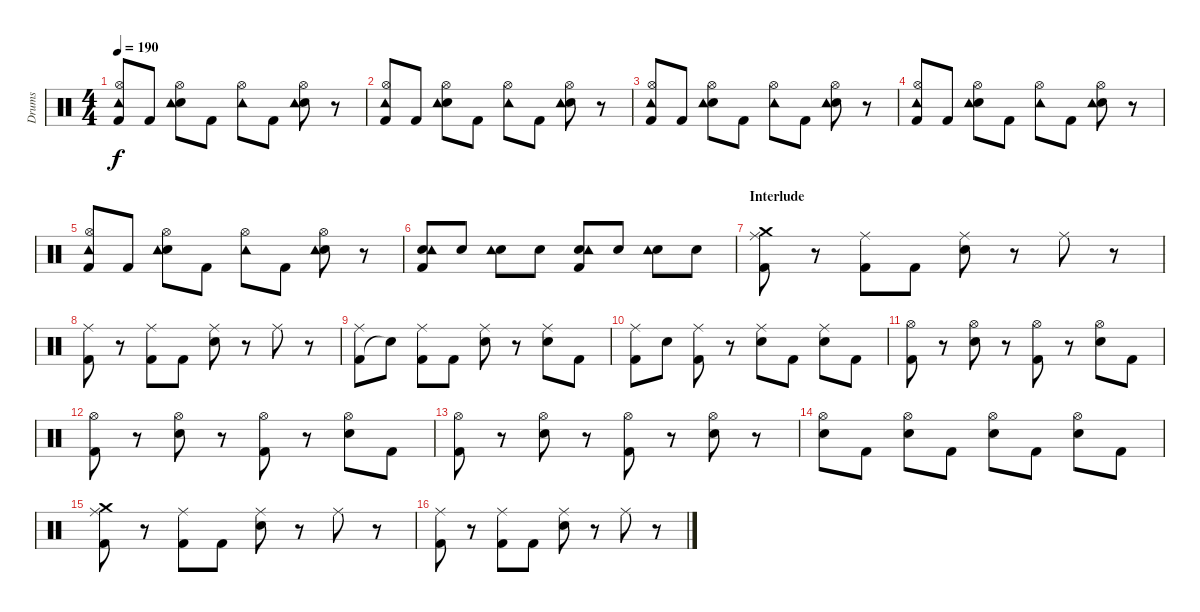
\track ("Drums" "Drums") {instrument percussion}
\staff {score}
\articulation defaults
\ts (4 4)
\tempo 190
\clef neutral
\ks c
("Kick (hit) 2" "Hi-Hat (open)" "Tambourine (hit)").8{dy f} "Kick (hit) 2".8 ("Electric Snare (hit)" "Hi-Hat (open)" "Tambourine (hit)").8 "Kick (hit) 2".8 ("Hi-Hat (open)" "Tambourine (hit)").8 "Kick (hit) 2".8 ("Electric Snare (hit)" "Hi-Hat (open)" "Tambourine (hit)").8 r.8 |
("Kick (hit) 2" "Hi-Hat (open)" "Tambourine (hit)").8 "Kick (hit) 2".8 ("Electric Snare (hit)" "Hi-Hat (open)" "Tambourine (hit)").8 "Kick (hit) 2".8 ("Hi-Hat (open)" "Tambourine (hit)").8 "Kick (hit) 2".8 ("Electric Snare (hit)" "Hi-Hat (open)" "Tambourine (hit)").8 r.8 |
("Kick (hit) 2" "Hi-Hat (open)" "Tambourine (hit)").8 "Kick (hit) 2".8 ("Electric Snare (hit)" "Hi-Hat (open)" "Tambourine (hit)").8 "Kick (hit) 2".8 ("Hi-Hat (open)" "Tambourine (hit)").8 "Kick (hit) 2".8 ("Electric Snare (hit)" "Hi-Hat (open)" "Tambourine (hit)").8 r.8 |
("Kick (hit) 2" "Hi-Hat (open)" "Tambourine (hit)").8 "Kick (hit) 2".8 ("Electric Snare (hit)" "Hi-Hat (open)" "Tambourine (hit)").8 "Kick (hit) 2".8 ("Hi-Hat (open)" "Tambourine (hit)").8 "Kick (hit) 2".8 ("Electric Snare (hit)" "Hi-Hat (open)" "Tambourine (hit)").8 r.8 |
("Kick (hit) 2" "Hi-Hat (open)" "Tambourine (hit)").8 "Kick (hit) 2".8 ("Electric Snare (hit)" "Hi-Hat (open)" "Tambourine (hit)").8 "Kick (hit) 2".8 ("Hi-Hat (open)" "Tambourine (hit)").8 "Kick (hit) 2".8 ("Electric Snare (hit)" "Hi-Hat (open)" "Tambourine (hit)").8 r.8 |
("Kick (hit) 2" "Electric Snare (hit)" "Tambourine (hit)").8 "Electric Snare (hit)".8 ("Electric Snare (hit)" "Tambourine (hit)").8 "Electric Snare (hit)".8 ("Kick (hit) 2" "Electric Snare (hit)" "Tambourine (hit)").8 "Electric Snare (hit)".8 ("Electric Snare (hit)" "Tambourine (hit)").8 "Electric Snare (hit)".8 |
\section ("" "Interlude")
("Kick (hit) 2" "Ride (middle)" "Crash medium (hit)").8 r.8 ("Kick (hit) 2" "Ride (middle)").8 "Kick (hit) 2".8 ("Electric Snare (hit)" "Ride (middle)").8 r.8 "Ride (middle)".8 r.8 |
("Kick (hit) 2" "Ride (middle)").8 r.8 ("Kick (hit) 2" "Ride (middle)").8 "Kick (hit) 2".8 ("Electric Snare (hit)" "Ride (middle)").8 r.8 "Ride (middle)".8 r.8 |
("Kick (hit) 2" "Ride (middle)").8 "Snare (hit)"{t}.8 ("Kick (hit) 2" "Ride (middle)").8 "Kick (hit) 2".8 ("Electric Snare (hit)" "Ride (middle)").8 r.8 ("Electric Snare (hit)" "Ride (middle)").8 "Kick (hit) 2".8 |
("Kick (hit) 2" "Ride (middle)").8 "Electric Snare (hit)".8 ("Kick (hit) 2" "Ride (middle)").8 r.8 ("Electric Snare (hit)" "Ride (middle)").8 "Kick (hit) 2".8 ("Electric Snare (hit)" "Ride (middle)").8 "Kick (hit) 2".8 |
("Kick (hit) 2" "Hi-Hat (open)").8 r.8 ("Electric Snare (hit)" "Hi-Hat (open)").8 r.8 ("Kick (hit) 2" "Hi-Hat (open)").8 r.8 ("Electric Snare (hit)" "Hi-Hat (open)").8 "Kick (hit) 2".8 |
("Kick (hit) 2" "Hi-Hat (open)").8 r.8 ("Electric Snare (hit)" "Hi-Hat (open)").8 r.8 ("Kick (hit) 2" "Hi-Hat (open)").8 r.8 ("Electric Snare (hit)" "Hi-Hat (open)").8 "Kick (hit) 2".8 |
("Kick (hit) 2" "Hi-Hat (open)").8 r.8 ("Electric Snare (hit)" "Hi-Hat (open)").8 r.8 ("Kick (hit) 2" "Hi-Hat (open)").8 r.8 ("Electric Snare (hit)" "Hi-Hat (open)").8 r.8 |
("Electric Snare (hit)" "Hi-Hat (open)").8 "Kick (hit) 2".8 ("Electric Snare (hit)" "Hi-Hat (open)").8 "Kick (hit) 2".8 ("Electric Snare (hit)" "Hi-Hat (open)").8 "Kick (hit) 2".8 ("Electric Snare (hit)" "Hi-Hat (open)").8 "Kick (hit) 2".8 |
("Kick (hit) 2" "Ride (middle)" "Crash medium (hit)").8 r.8 ("Kick (hit) 2" "Ride (middle)").8 "Kick (hit) 2".8 ("Electric Snare (hit)" "Ride (middle)").8 r.8 "Ride (middle)".8 r.8 |
("Kick (hit) 2" "Ride (middle)").8 r.8 ("Kick (hit) 2" "Ride (middle)").8 "Kick (hit) 2".8 ("Electric Snare (hit)" "Ride (middle)").8 r.8 "Ride (middle)".8 r.8
